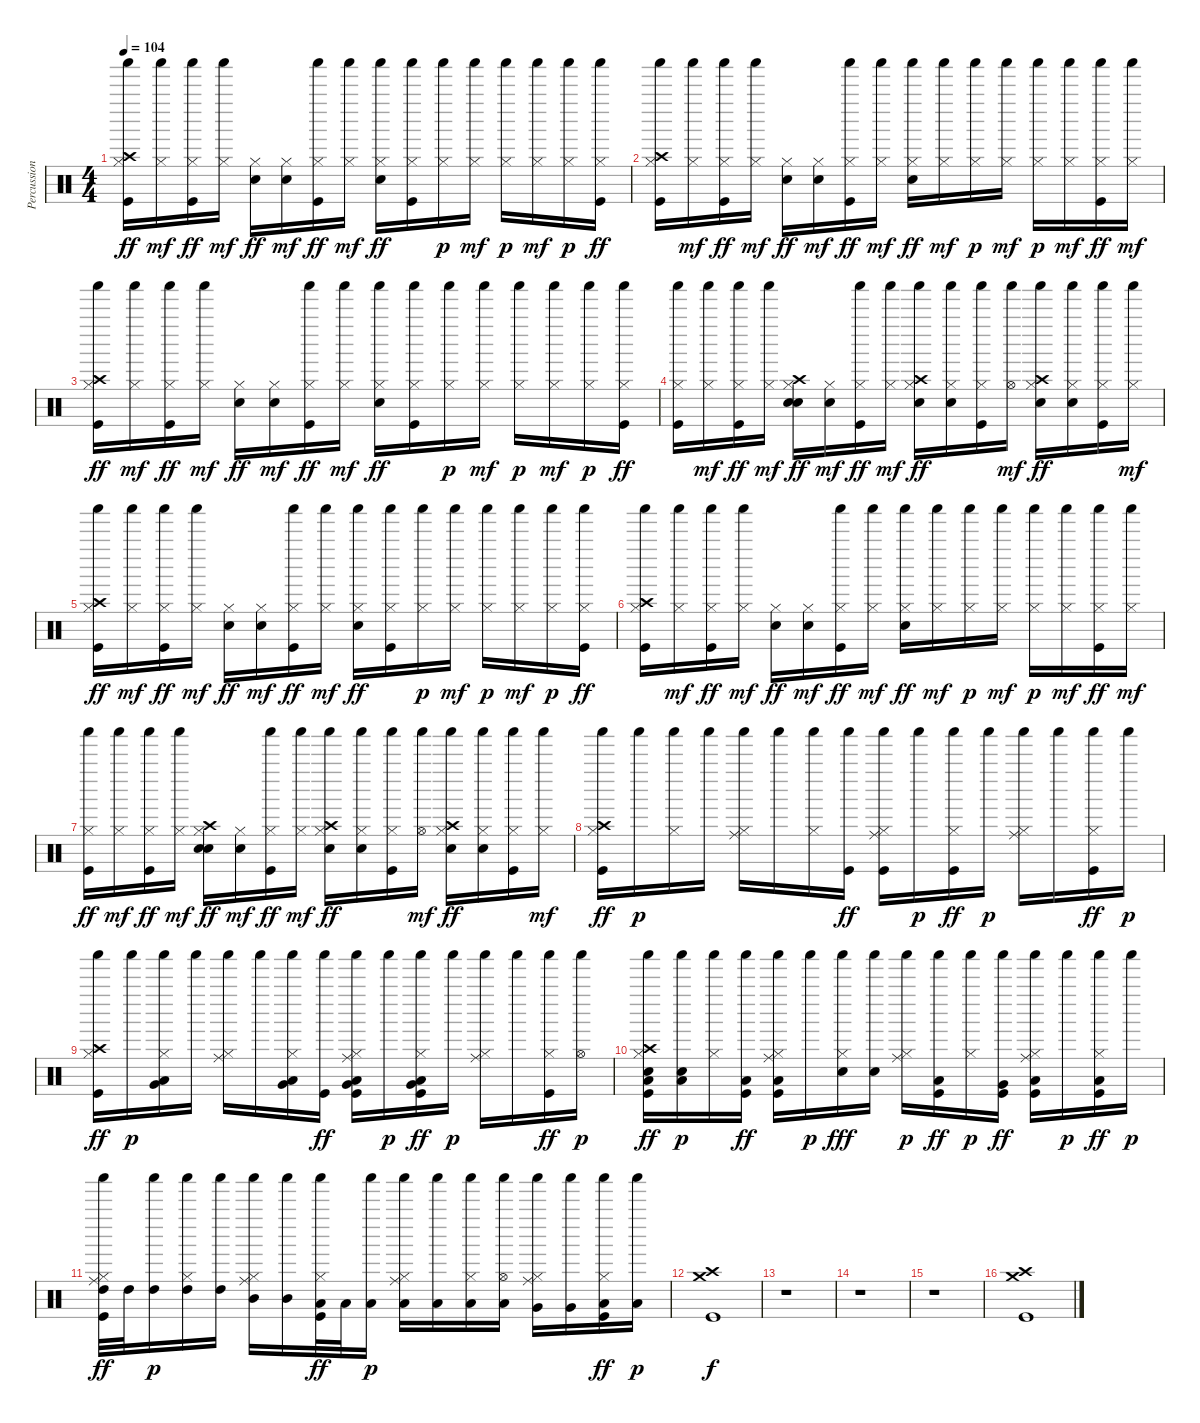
\track ("Percussioni" "Percussion") {instrument percussion}
\staff {score}
\articulation defaults
\ts (4 4)
\tempo 104
\clef neutral
\ks c
("Crash high (hit)" "Shaker (hit)" "Hi-Hat (closed)" "Kick (hit)").16{dy ff} ("Shaker (hit)" "Hi-Hat (closed)").16{dy mf} ("Shaker (hit)" "Hi-Hat (closed)" "Kick (hit)").16{dy ff} ("Shaker (hit)" "Hi-Hat (closed)").16{dy mf} ("Hand Clap (hit)" "Hi-Hat (closed)").16{dy ff} ("Hand Clap (hit)" "Hi-Hat (closed)").16{dy mf} ("Shaker (hit)" "Hi-Hat (closed)" "Kick (hit)").16{dy ff} ("Shaker (hit)" "Hi-Hat (closed)").16{dy mf} ("Shaker (hit)" "Hi-Hat (closed)" "Snare (hit) 2").16{dy ff} ("Shaker (hit)" "Hi-Hat (closed)" "Kick (hit)").16 ("Shaker (hit)" "Hi-Hat (closed)").16{dy p} ("Shaker (hit)" "Hi-Hat (closed)").16{dy mf} ("Shaker (hit)" "Hi-Hat (closed)").16{dy p} ("Shaker (hit)" "Hi-Hat (closed)").16{dy mf} ("Shaker (hit)" "Hi-Hat (closed)").16{dy p} ("Shaker (hit)" "Hi-Hat (closed)" "Kick (hit)").16{dy ff} |
("Crash high (hit)" "Shaker (hit)" "Hi-Hat (closed)" "Kick (hit)").16 ("Shaker (hit)" "Hi-Hat (closed)").16{dy mf} ("Shaker (hit)" "Hi-Hat (closed)" "Kick (hit)").16{dy ff} ("Shaker (hit)" "Hi-Hat (closed)").16{dy mf} ("Hand Clap (hit)" "Hi-Hat (closed)").16{dy ff} ("Hand Clap (hit)" "Hi-Hat (closed)").16{dy mf} ("Shaker (hit)" "Hi-Hat (closed)" "Kick (hit)").16{dy ff} ("Shaker (hit)" "Hi-Hat (closed)").16{dy mf} ("Shaker (hit)" "Hi-Hat (closed)" "Snare (hit) 2").16{dy ff} ("Shaker (hit)" "Hi-Hat (closed)").16{dy mf} ("Shaker (hit)" "Hi-Hat (closed)").16{dy p} ("Shaker (hit)" "Hi-Hat (closed)").16{dy mf} ("Shaker (hit)" "Hi-Hat (closed)").16{dy p} ("Shaker (hit)" "Hi-Hat (closed)").16{dy mf} ("Shaker (hit)" "Hi-Hat (closed)" "Kick (hit)").16{dy ff} ("Shaker (hit)" "Hi-Hat (closed)").16{dy mf} |
("Crash high (hit)" "Shaker (hit)" "Hi-Hat (closed)" "Kick (hit)").16{dy ff} ("Shaker (hit)" "Hi-Hat (closed)").16{dy mf} ("Shaker (hit)" "Hi-Hat (closed)" "Kick (hit)").16{dy ff} ("Shaker (hit)" "Hi-Hat (closed)").16{dy mf} ("Hand Clap (hit)" "Hi-Hat (closed)").16{dy ff} ("Hand Clap (hit)" "Hi-Hat (closed)").16{dy mf} ("Shaker (hit)" "Hi-Hat (closed)" "Kick (hit)").16{dy ff} ("Shaker (hit)" "Hi-Hat (closed)").16{dy mf} ("Shaker (hit)" "Hi-Hat (closed)" "Snare (hit) 2").16{dy ff} ("Shaker (hit)" "Hi-Hat (closed)" "Kick (hit)").16 ("Shaker (hit)" "Hi-Hat (closed)").16{dy p} ("Shaker (hit)" "Hi-Hat (closed)").16{dy mf} ("Shaker (hit)" "Hi-Hat (closed)").16{dy p} ("Shaker (hit)" "Hi-Hat (closed)").16{dy mf} ("Shaker (hit)" "Hi-Hat (closed)").16{dy p} ("Shaker (hit)" "Hi-Hat (closed)" "Kick (hit)").16{dy ff} |
("Shaker (hit)" "Hi-Hat (closed)" "Kick (hit)").16 ("Shaker (hit)" "Hi-Hat (closed)").16{dy mf} ("Shaker (hit)" "Hi-Hat (closed)" "Kick (hit)").16{dy ff} ("Shaker (hit)" "Hi-Hat (closed)").16{dy mf} ("Crash high (hit)" "Hand Clap (hit)" "Hi-Hat (closed)" "Snare (hit) 2").16{dy ff} ("Hand Clap (hit)" "Hi-Hat (closed)").16{dy mf} ("Shaker (hit)" "Hi-Hat (closed)" "Kick (hit)").16{dy ff} ("Shaker (hit)" "Hi-Hat (closed)").16{dy mf} ("Crash high (hit)" "Shaker (hit)" "Hi-Hat (closed)" "Snare (hit) 2").16{dy ff} ("Shaker (hit)" "Hi-Hat (closed)" "Snare (hit) 2").16 ("Shaker (hit)" "Hi-Hat (closed)" "Kick (hit)").16 ("Shaker (hit)" "Hi-Hat (open)").16{dy mf} ("Crash high (hit)" "Shaker (hit)" "Hi-Hat (closed)" "Snare (hit) 2").16{dy ff} ("Shaker (hit)" "Hi-Hat (closed)" "Snare (hit) 2").16 ("Shaker (hit)" "Hi-Hat (closed)" "Kick (hit)").16 ("Shaker (hit)" "Hi-Hat (closed)").16{dy mf} |
("Crash high (hit)" "Shaker (hit)" "Hi-Hat (closed)" "Kick (hit)").16{dy ff} ("Shaker (hit)" "Hi-Hat (closed)").16{dy mf} ("Shaker (hit)" "Hi-Hat (closed)" "Kick (hit)").16{dy ff} ("Shaker (hit)" "Hi-Hat (closed)").16{dy mf} ("Hand Clap (hit)" "Hi-Hat (closed)").16{dy ff} ("Hand Clap (hit)" "Hi-Hat (closed)").16{dy mf} ("Shaker (hit)" "Hi-Hat (closed)" "Kick (hit)").16{dy ff} ("Shaker (hit)" "Hi-Hat (closed)").16{dy mf} ("Shaker (hit)" "Hi-Hat (closed)" "Snare (hit) 2").16{dy ff} ("Shaker (hit)" "Hi-Hat (closed)" "Kick (hit)").16 ("Shaker (hit)" "Hi-Hat (closed)").16{dy p} ("Shaker (hit)" "Hi-Hat (closed)").16{dy mf} ("Shaker (hit)" "Hi-Hat (closed)").16{dy p} ("Shaker (hit)" "Hi-Hat (closed)").16{dy mf} ("Shaker (hit)" "Hi-Hat (closed)").16{dy p} ("Shaker (hit)" "Hi-Hat (closed)" "Kick (hit)").16{dy ff} |
("Crash high (hit)" "Shaker (hit)" "Hi-Hat (closed)" "Kick (hit)").16 ("Shaker (hit)" "Hi-Hat (closed)").16{dy mf} ("Shaker (hit)" "Hi-Hat (closed)" "Kick (hit)").16{dy ff} ("Shaker (hit)" "Hi-Hat (closed)").16{dy mf} ("Hand Clap (hit)" "Hi-Hat (closed)").16{dy ff} ("Hand Clap (hit)" "Hi-Hat (closed)").16{dy mf} ("Shaker (hit)" "Hi-Hat (closed)" "Kick (hit)").16{dy ff} ("Shaker (hit)" "Hi-Hat (closed)").16{dy mf} ("Shaker (hit)" "Hi-Hat (closed)" "Snare (hit) 2").16{dy ff} ("Shaker (hit)" "Hi-Hat (closed)").16{dy mf} ("Shaker (hit)" "Hi-Hat (closed)").16{dy p} ("Shaker (hit)" "Hi-Hat (closed)").16{dy mf} ("Shaker (hit)" "Hi-Hat (closed)").16{dy p} ("Shaker (hit)" "Hi-Hat (closed)").16{dy mf} ("Shaker (hit)" "Hi-Hat (closed)" "Kick (hit)").16{dy ff} ("Shaker (hit)" "Hi-Hat (closed)").16{dy mf} |
("Shaker (hit)" "Hi-Hat (closed)" "Kick (hit)").16{dy ff} ("Shaker (hit)" "Hi-Hat (closed)").16{dy mf} ("Shaker (hit)" "Hi-Hat (closed)" "Kick (hit)").16{dy ff} ("Shaker (hit)" "Hi-Hat (closed)").16{dy mf} ("Crash high (hit)" "Hand Clap (hit)" "Hi-Hat (closed)" "Snare (hit) 2").16{dy ff} ("Hand Clap (hit)" "Hi-Hat (closed)").16{dy mf} ("Shaker (hit)" "Hi-Hat (closed)" "Kick (hit)").16{dy ff} ("Shaker (hit)" "Hi-Hat (closed)").16{dy mf} ("Crash high (hit)" "Shaker (hit)" "Hi-Hat (closed)" "Snare (hit) 2").16{dy ff} ("Shaker (hit)" "Hi-Hat (closed)" "Snare (hit) 2").16 ("Shaker (hit)" "Hi-Hat (closed)" "Kick (hit)").16 ("Shaker (hit)" "Hi-Hat (open)").16{dy mf} ("Crash high (hit)" "Shaker (hit)" "Hi-Hat (closed)" "Snare (hit) 2").16{dy ff} ("Shaker (hit)" "Hi-Hat (closed)" "Snare (hit) 2").16 ("Shaker (hit)" "Hi-Hat (closed)" "Kick (hit)").16 ("Shaker (hit)" "Hi-Hat (closed)").16{dy mf} |
("Crash high (hit)" "Shaker (hit)" "Hi-Hat (closed)" "Kick (hit)").16{dy ff} "Shaker (hit)".16{dy p} ("Shaker (hit)" "Hi-Hat (closed)").16 "Shaker (hit)".16 ("Ride (middle)" "Shaker (hit)" "Hi-Hat (closed)").16 "Shaker (hit)".16 ("Shaker (hit)" "Hi-Hat (closed)").16 ("Shaker (hit)" "Kick (hit)").16{dy ff} ("Ride (middle)" "Shaker (hit)" "Hi-Hat (closed)" "Kick (hit)").16 "Shaker (hit)".16{dy p} ("Shaker (hit)" "Hi-Hat (closed)" "Kick (hit)").16{dy ff} "Shaker (hit)".16{dy p} ("Ride (middle)" "Shaker (hit)" "Hi-Hat (closed)").16 "Shaker (hit)".16 ("Shaker (hit)" "Hi-Hat (closed)" "Kick (hit)").16{dy ff} "Shaker (hit)".16{dy p} |
("Crash high (hit)" "Shaker (hit)" "Hi-Hat (closed)" "Kick (hit)").16{dy ff} "Shaker (hit)".16{dy p} ("Very Low Tom (hit)" "Shaker (hit)" "Hi-Hat (closed)" "Low Tom (hit)").16 "Shaker (hit)".16 ("Ride (middle)" "Shaker (hit)" "Hi-Hat (closed)").16 "Shaker (hit)".16 ("Very Low Tom (hit)" "Shaker (hit)" "Hi-Hat (closed)" "Low Tom (hit)").16 ("Shaker (hit)" "Kick (hit)").16{dy ff} ("Ride (middle)" "Low Floor Tom (hit)" "Shaker (hit)" "Hi-Hat (closed)" "Very Low Tom (hit)" "Kick (hit)").16 "Shaker (hit)".16{dy p} ("Low Floor Tom (hit)" "Shaker (hit)" "Hi-Hat (closed)" "Very Low Tom (hit)" "Kick (hit)").16{dy ff} "Shaker (hit)".16{dy p} ("Ride (middle)" "Shaker (hit)" "Hi-Hat (closed)").16 "Shaker (hit)".16 ("Shaker (hit)" "Hi-Hat (closed)" "Kick (hit)").16{dy ff} ("Shaker (hit)" "Hi-Hat (open)").16{dy p} |
("Crash high (hit)" "Low Tom (hit)" "Shaker (hit)" "Hi-Hat (closed)" "Snare (hit) 2" "Kick (hit)").16{dy ff} ("Low Tom (hit)" "Shaker (hit)" "Snare (hit) 2").16{dy p} ("Shaker (hit)" "Hi-Hat (closed)").16 ("Low Floor Tom (hit)" "Shaker (hit)" "Kick (hit)").16{dy ff} ("Ride (middle)" "Low Floor Tom (hit)" "Shaker (hit)" "Hi-Hat (closed)" "Kick (hit)").16 "Shaker (hit)".16{dy p} ("Shaker (hit)" "Hi-Hat (closed)" "Snare (hit) 2").16{dy fff} ("Shaker (hit)" "Snare (hit) 2").16 ("Ride (middle)" "Shaker (hit)" "Hi-Hat (closed)").16{dy p} ("Low Tom (hit)" "Shaker (hit)" "Kick (hit)").16{dy ff} ("Shaker (hit)" "Hi-Hat (closed)").16{dy p} ("Very Low Tom (hit)" "Shaker (hit)" "Kick (hit)").16{dy ff} ("Ride (middle)" "Low Floor Tom (hit)" "Shaker (hit)" "Hi-Hat (closed)" "Kick (hit)").16 "Shaker (hit)".16{dy p} ("Low Floor Tom (hit)" "Shaker (hit)" "Hi-Hat (closed)" "Kick (hit)").16{dy ff} "Shaker (hit)".16{dy p} |
("Ride (middle)" "High Tom (hit)" "Shaker (hit)" "Hi-Hat (closed)" "Kick (hit)").32{dy ff} "High Tom (hit)".32 ("High Tom (hit)" "Shaker (hit)").16{dy p} ("High Tom (hit)" "Shaker (hit)" "Hi-Hat (closed)").16 ("High Tom (hit)" "Shaker (hit)").16 ("Ride (middle)" "Mid Tom (hit)" "Shaker (hit)" "Hi-Hat (closed)").16 ("Mid Tom (hit)" "Shaker (hit)").16 ("Low Tom (hit)" "Shaker (hit)" "Hi-Hat (closed)" "Kick (hit)").32{dy ff} "Low Tom (hit)".32 ("Low Tom (hit)" "Shaker (hit)").16{dy p} ("Ride (middle)" "Low Tom (hit)" "Shaker (hit)" "Hi-Hat (closed)").16 ("Low Tom (hit)" "Shaker (hit)").16 ("Low Tom (hit)" "Shaker (hit)" "Hi-Hat (closed)").16 ("Low Tom (hit)" "Shaker (hit)" "Hi-Hat (open)").16 ("Ride (middle)" "Very Low Tom (hit)" "Shaker (hit)" "Hi-Hat (closed)").16 ("Very Low Tom (hit)" "Shaker (hit)").16 ("Low Floor Tom (hit)" "Shaker (hit)" "Hi-Hat (closed)" "Kick (hit)").16{dy ff} ("Low Floor Tom (hit)" "Shaker (hit)").16{dy p} |
("Crash medium (hit)" "Crash high (hit)" "Kick (hit)").1{dy f} |
r.1 |
r.1 |
r.1 |
("Crash medium (hit)" "Crash high (hit)" "Kick (hit)").1
